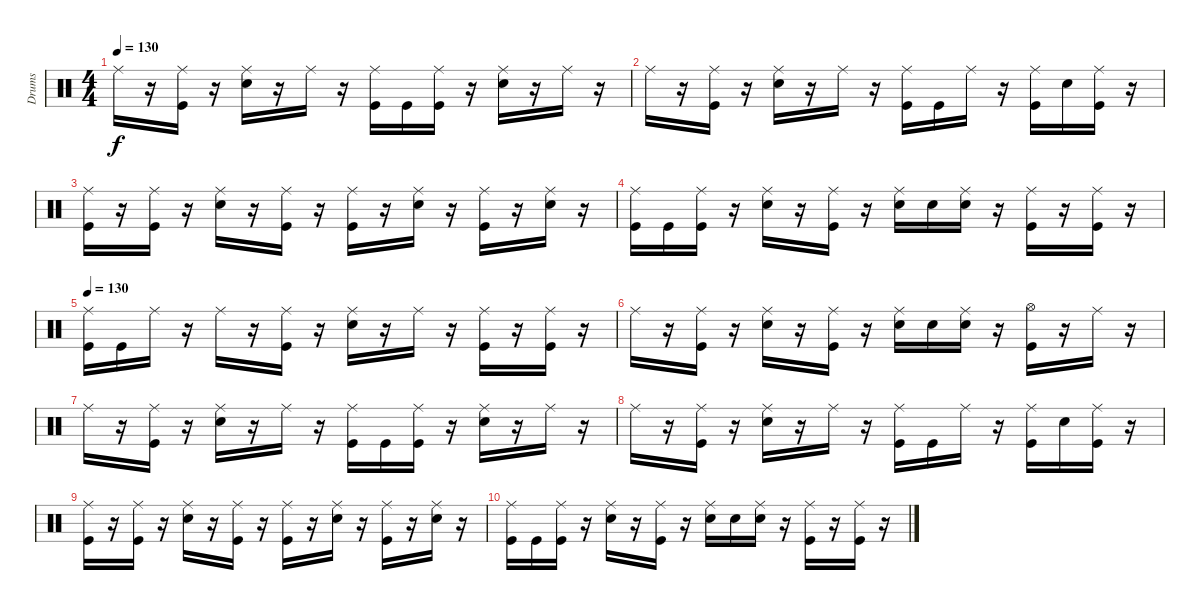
\track ("Drums" "Drums") {instrument percussion}
\staff {score}
\articulation defaults
\ts (4 4)
\tempo 130
\clef neutral
\ks c "Ride (middle)".16{dy f}
r.16 ("Ride (middle)" "Kick (hit)").16 r.16 ("Ride (middle)" "Electric Snare (hit)").16 r.16 "Ride (middle)".16 r.16 ("Ride (middle)" "Kick (hit)").16 "Kick (hit)".16 ("Ride (middle)" "Kick (hit)").16 r.16 ("Ride (middle)" "Electric Snare (hit)").16 r.16 "Ride (middle)".16 r.16 |
"Ride (middle)".16 r.16 ("Ride (middle)" "Kick (hit)").16 r.16 ("Ride (middle)" "Electric Snare (hit)").16 r.16 "Ride (middle)".16 r.16 ("Ride (middle)" "Kick (hit)").16 "Kick (hit)".16 "Ride (middle)".16 r.16 ("Ride (middle)" "Kick (hit)").16 "Electric Snare (hit)".16 ("Ride (middle)" "Kick (hit)").16 r.16 |
("Ride (middle)" "Kick (hit)").16 r.16 ("Ride (middle)" "Kick (hit)").16 r.16 ("Ride (middle)" "Electric Snare (hit)").16 r.16 ("Ride (middle)" "Kick (hit)").16 r.16 ("Ride (middle)" "Kick (hit)").16 r.16 ("Ride (middle)" "Electric Snare (hit)").16 r.16 ("Ride (middle)" "Kick (hit)").16 r.16 ("Ride (middle)" "Electric Snare (hit)").16 r.16 |
("Ride (middle)" "Kick (hit)").16 "Kick (hit)".16 ("Ride (middle)" "Kick (hit)").16 r.16 ("Ride (middle)" "Electric Snare (hit)").16 r.16 ("Ride (middle)" "Kick (hit)").16 r.16 ("Ride (middle)" "Electric Snare (hit)").16 "Electric Snare (hit)".16 ("Ride (middle)" "Electric Snare (hit)").16 r.16 ("Ride (middle)" "Kick (hit)").16 r.16 ("Ride (middle)" "Kick (hit)").16 r.16 |
\tempo 130
("Ride (middle)" "Kick (hit)").16 "Kick (hit)".16 "Ride (middle)".16 r.16 "Ride (middle)".16 r.16 ("Ride (middle)" "Kick (hit)").16 r.16 ("Ride (middle)" "Electric Snare (hit)").16 r.16 "Ride (middle)".16 r.16 ("Ride (middle)" "Kick (hit)").16 r.16 ("Ride (middle)" "Kick (hit)").16 r.16 |
"Ride (middle)".16 r.16 ("Ride (middle)" "Kick (hit)").16 r.16 ("Ride (middle)" "Electric Snare (hit)").16 r.16 ("Ride (middle)" "Kick (hit)").16 r.16 ("Ride (middle)" "Electric Snare (hit)").16 "Electric Snare (hit)".16 ("Ride (middle)" "Electric Snare (hit)").16 r.16 ("Hi-Hat (open)" "Kick (hit)").16 r.16 "Ride (middle)".16 r.16 |
"Ride (middle)".16 r.16 ("Ride (middle)" "Kick (hit)").16 r.16 ("Ride (middle)" "Electric Snare (hit)").16 r.16 "Ride (middle)".16 r.16 ("Ride (middle)" "Kick (hit)").16 "Kick (hit)".16 ("Ride (middle)" "Kick (hit)").16 r.16 ("Ride (middle)" "Electric Snare (hit)").16 r.16 "Ride (middle)".16 r.16 |
"Ride (middle)".16 r.16 ("Ride (middle)" "Kick (hit)").16 r.16 ("Ride (middle)" "Electric Snare (hit)").16 r.16 "Ride (middle)".16 r.16 ("Ride (middle)" "Kick (hit)").16 "Kick (hit)".16 "Ride (middle)".16 r.16 ("Ride (middle)" "Kick (hit)").16 "Electric Snare (hit)".16 ("Ride (middle)" "Kick (hit)").16 r.16 |
("Ride (middle)" "Kick (hit)").16 r.16 ("Ride (middle)" "Kick (hit)").16 r.16 ("Ride (middle)" "Electric Snare (hit)").16 r.16 ("Ride (middle)" "Kick (hit)").16 r.16 ("Ride (middle)" "Kick (hit)").16 r.16 ("Ride (middle)" "Electric Snare (hit)").16 r.16 ("Ride (middle)" "Kick (hit)").16 r.16 ("Ride (middle)" "Electric Snare (hit)").16 r.16 |
("Ride (middle)" "Kick (hit)").16 "Kick (hit)".16 ("Ride (middle)" "Kick (hit)").16 r.16 ("Ride (middle)" "Electric Snare (hit)").16 r.16 ("Ride (middle)" "Kick (hit)").16 r.16 ("Ride (middle)" "Electric Snare (hit)").16 "Electric Snare (hit)".16 ("Ride (middle)" "Electric Snare (hit)").16 r.16 ("Ride (middle)" "Kick (hit)").16 r.16 ("Ride (middle)" "Kick (hit)").16 r.16
